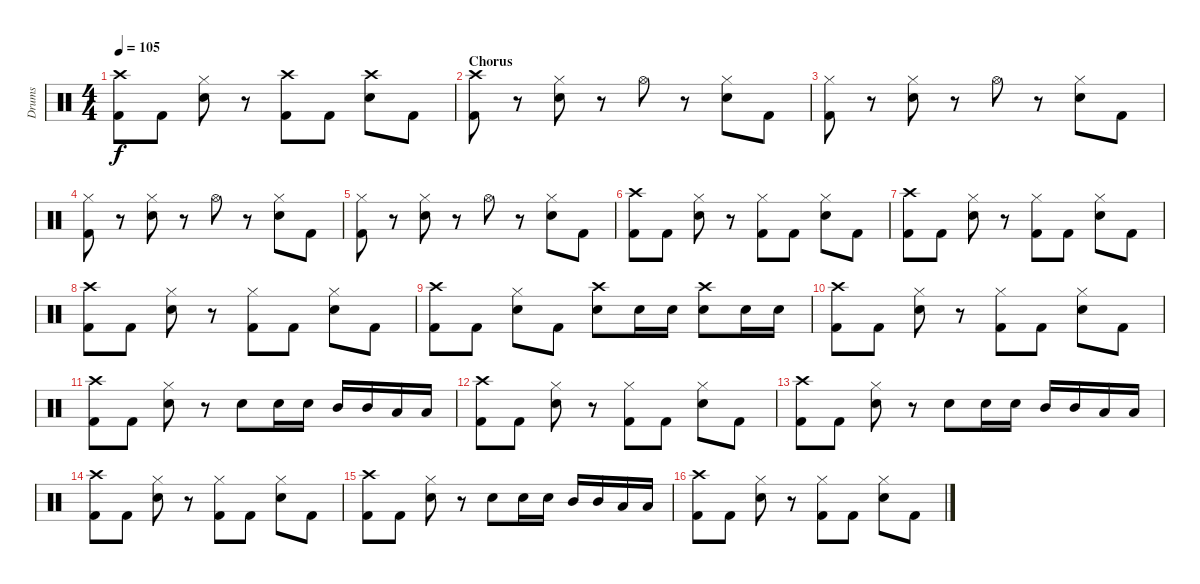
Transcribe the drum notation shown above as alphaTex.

\track ("Drums" "Drums") {instrument percussion}
\staff {score}
\articulation defaults
\ts (4 4)
\tempo 105
\clef neutral
\ks c
("Crash high (hit)" "Kick (hit) 2").8{dy f} "Kick (hit) 2".8 ("Hi-Hat (closed)" "Electric Snare (hit)").8 r.8 ("Crash high (hit)" "Kick (hit) 2").8 "Kick (hit) 2".8 ("Crash high (hit)" "Electric Snare (hit)").8 "Kick (hit) 2".8 |
\section ("" "Chorus")
("Crash high (hit)" "Kick (hit) 2").8 r.8 ("Hi-Hat (closed)" "Electric Snare (hit)").8 r.8 "Hi-Hat (open)".8 r.8 ("Hi-Hat (closed)" "Electric Snare (hit)").8 "Kick (hit) 2".8 |
("Hi-Hat (closed)" "Kick (hit) 2").8 r.8 ("Hi-Hat (closed)" "Electric Snare (hit)").8 r.8 "Hi-Hat (open)".8 r.8 ("Hi-Hat (closed)" "Electric Snare (hit)").8 "Kick (hit) 2".8 |
("Hi-Hat (closed)" "Kick (hit) 2").8 r.8 ("Hi-Hat (closed)" "Electric Snare (hit)").8 r.8 "Hi-Hat (open)".8 r.8 ("Hi-Hat (closed)" "Electric Snare (hit)").8 "Kick (hit) 2".8 |
("Hi-Hat (closed)" "Kick (hit) 2").8 r.8 ("Hi-Hat (closed)" "Electric Snare (hit)").8 r.8 "Hi-Hat (open)".8 r.8 ("Hi-Hat (closed)" "Electric Snare (hit)").8 "Kick (hit) 2".8 |
("Crash high (hit)" "Kick (hit) 2").8 "Kick (hit) 2".8 ("Hi-Hat (closed)" "Electric Snare (hit)").8 r.8 ("Hi-Hat (closed)" "Kick (hit) 2").8 "Kick (hit) 2".8 ("Hi-Hat (closed)" "Electric Snare (hit)").8 "Kick (hit) 2".8 |
("Crash high (hit)" "Kick (hit) 2").8 "Kick (hit) 2".8 ("Hi-Hat (closed)" "Electric Snare (hit)").8 r.8 ("Hi-Hat (closed)" "Kick (hit) 2").8 "Kick (hit) 2".8 ("Hi-Hat (closed)" "Electric Snare (hit)").8 "Kick (hit) 2".8 |
("Crash high (hit)" "Kick (hit) 2").8 "Kick (hit) 2".8 ("Hi-Hat (closed)" "Electric Snare (hit)").8 r.8 ("Hi-Hat (closed)" "Kick (hit) 2").8 "Kick (hit) 2".8 ("Hi-Hat (closed)" "Electric Snare (hit)").8 "Kick (hit) 2".8 |
("Crash high (hit)" "Kick (hit) 2").8 "Kick (hit) 2".8 ("Hi-Hat (closed)" "Electric Snare (hit)").8 "Kick (hit) 2".8 ("Crash high (hit)" "Electric Snare (hit)").8 "Electric Snare (hit)".16 "Electric Snare (hit)".16 ("Crash high (hit)" "Electric Snare (hit)").8 "Electric Snare (hit)".16 "Electric Snare (hit)".16 |
("Crash high (hit)" "Kick (hit) 2").8 "Kick (hit) 2".8 ("Hi-Hat (closed)" "Electric Snare (hit)").8 r.8 ("Hi-Hat (closed)" "Kick (hit) 2").8 "Kick (hit) 2".8 ("Hi-Hat (closed)" "Electric Snare (hit)").8 "Kick (hit) 2".8 |
("Crash high (hit)" "Kick (hit) 2").8 "Kick (hit) 2".8 ("Hi-Hat (closed)" "Electric Snare (hit)").8 r.8 "Electric Snare (hit)".8 "Electric Snare (hit)".16 "Electric Snare (hit)".16 "Mid Tom (hit)".16 "Mid Tom (hit)".16 "Low Tom (hit)".16 "Low Tom (hit)".16 |
("Crash high (hit)" "Kick (hit) 2").8 "Kick (hit) 2".8 ("Hi-Hat (closed)" "Electric Snare (hit)").8 r.8 ("Hi-Hat (closed)" "Kick (hit) 2").8 "Kick (hit) 2".8 ("Hi-Hat (closed)" "Electric Snare (hit)").8 "Kick (hit) 2".8 |
("Crash high (hit)" "Kick (hit) 2").8 "Kick (hit) 2".8 ("Hi-Hat (closed)" "Electric Snare (hit)").8 r.8 "Electric Snare (hit)".8 "Electric Snare (hit)".16 "Electric Snare (hit)".16 "Mid Tom (hit)".16 "Mid Tom (hit)".16 "Low Tom (hit)".16 "Low Tom (hit)".16 |
("Crash high (hit)" "Kick (hit) 2").8 "Kick (hit) 2".8 ("Hi-Hat (closed)" "Electric Snare (hit)").8 r.8 ("Hi-Hat (closed)" "Kick (hit) 2").8 "Kick (hit) 2".8 ("Hi-Hat (closed)" "Electric Snare (hit)").8 "Kick (hit) 2".8 |
("Crash high (hit)" "Kick (hit) 2").8 "Kick (hit) 2".8 ("Hi-Hat (closed)" "Electric Snare (hit)").8 r.8 "Electric Snare (hit)".8 "Electric Snare (hit)".16 "Electric Snare (hit)".16 "Mid Tom (hit)".16 "Mid Tom (hit)".16 "Low Tom (hit)".16 "Low Tom (hit)".16 |
("Crash high (hit)" "Kick (hit) 2").8 "Kick (hit) 2".8 ("Hi-Hat (closed)" "Electric Snare (hit)").8 r.8 ("Hi-Hat (closed)" "Kick (hit) 2").8 "Kick (hit) 2".8 ("Hi-Hat (closed)" "Electric Snare (hit)").8 "Kick (hit) 2".8
